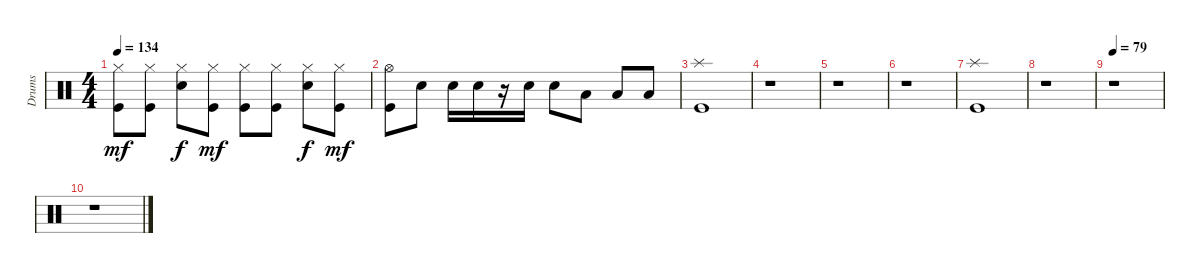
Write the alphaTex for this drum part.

\track ("Drums" "Drums") {instrument percussion}
\staff {score}
\articulation defaults
\ts (4 4)
\tempo 134
\clef neutral
\ks c
("Hi-Hat (closed)" "Kick (hit)").8{dy mf} ("Hi-Hat (closed)" "Kick (hit)").8 ("Hi-Hat (closed)" "Snare (hit) 2").8{dy f} ("Hi-Hat (closed)" "Kick (hit)").8{dy mf} ("Hi-Hat (closed)" "Kick (hit)").8 ("Hi-Hat (closed)" "Kick (hit)").8 ("Hi-Hat (closed)" "Snare (hit) 2").8{dy f} ("Hi-Hat (closed)" "Kick (hit)").8{dy mf} |
("Hi-Hat (open)" "Kick (hit)").8 "Snare (hit) 2".8 "Snare (hit) 2".16 "Snare (hit) 2".16 r.16 "Snare (hit) 2".16 "Snare (hit) 2".8 "Low Tom (hit)".8 "Low Tom (hit)".8 "Low Tom (hit)".8 |
("Splash (hit)" "Kick (hit)").1 |
r.1 |
r.1 |
r.1 |
("Splash (hit)" "Kick (hit)").1 |
r.1 |
\tempo 79
r.1 |
r.1
